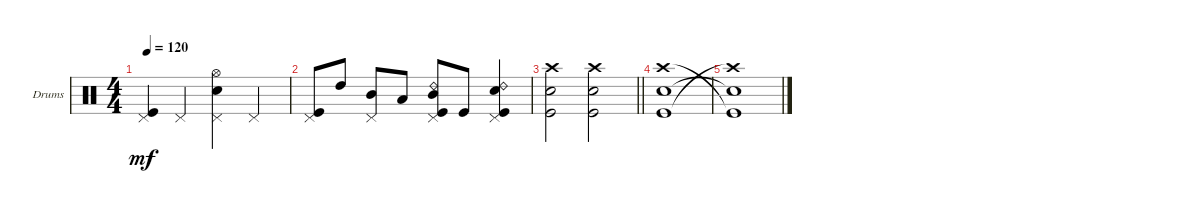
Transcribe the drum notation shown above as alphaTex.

\defaultSystemsLayout 4
\bracketExtendMode groupsimilarinstruments
\firstSystemTrackNameOrientation horizontal
\otherSystemsTrackNameOrientation horizontal
\track ("Drumkit" "Drums") {instrument percussion}
\staff {score}
\articulation defaults
\ts (4 4)
\tempo 120
\clef neutral
\scale
0.333333
\ks aminor
("Pedal Hi-Hat (hit)" "Kick (hit)").4{dy mf} "Pedal Hi-Hat (hit)".4 ("Pedal Hi-Hat (hit)" "Snare (hit) 2" "Hi-Hat (open)").4 "Pedal Hi-Hat (hit)".4 |
\scale
0.333333 ("Kick (hit)" "Pedal Hi-Hat (hit)").8 "High Tom (hit)".8 ("Mid Tom (hit)" "Pedal Hi-Hat (hit)").8 "Low Tom (hit)".8 ("Mid Tom (hit)" "Kick (hit)" "Pedal Hi-Hat (hit)" "Ride (bell) 2").8 "Kick (hit)".8 ("Snare (hit) 2" "Kick (hit)" "Pedal Hi-Hat (hit)" "Ride (bell) 2").4 |
\scale
0.333333
\barLineRight lightlight
("Kick (hit)" "Crash high (hit)" "Snare (hit) 2").2 ("Kick (hit)" "Crash high (hit)" "Snare (hit) 2").2 |
("Kick (hit)" "Snare (hit) 2" "Crash high (hit)").1 |
("Crash high (hit)"{t} "Snare (hit) 2"{t} "Kick (hit)"{t}).1
